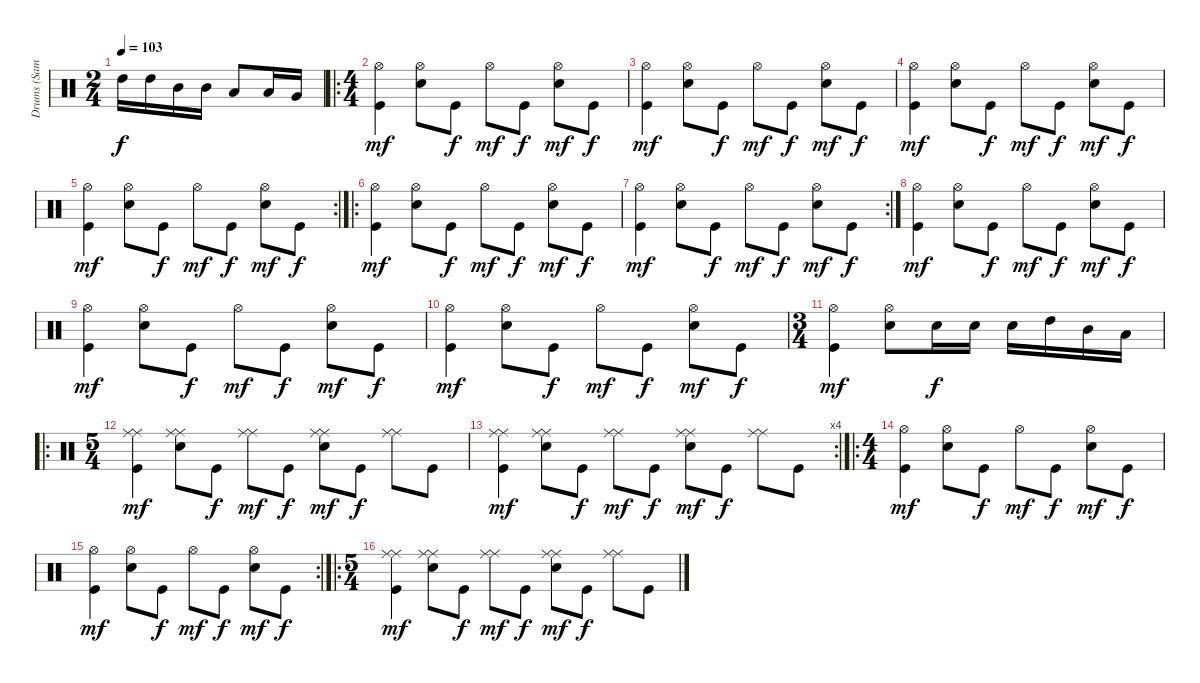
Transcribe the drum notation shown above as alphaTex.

\track ("Drums (Sami Karppinen)" "Drums (Sam") {instrument percussion}
\staff {score}
\articulation defaults
\ts (2 4)
\tempo 103
\clef neutral
\ks c "High Tom (hit)".16{dy f} "High Tom (hit)".16 "Mid Tom (hit)".16 "Mid Tom (hit)".16 "Low Tom (hit)".8 "Low Tom (hit)".16 "Very Low Tom (hit)".16
|
\ro
\ts (4 4)
("Kick (hit)" "Hi-Hat (open)").4{dy mf} ("Electric Snare (hit)" "Hi-Hat (open)").8 "Kick (hit)".8{dy f} "Hi-Hat (open)".8{dy mf} "Kick (hit)".8{dy f} ("Electric Snare (hit)" "Hi-Hat (open)").8{dy mf} "Kick (hit)".8{dy f} |
("Kick (hit)" "Hi-Hat (open)").4{dy mf} ("Electric Snare (hit)" "Hi-Hat (open)").8 "Kick (hit)".8{dy f} "Hi-Hat (open)".8{dy mf} "Kick (hit)".8{dy f} ("Electric Snare (hit)" "Hi-Hat (open)").8{dy mf} "Kick (hit)".8{dy f} |
("Kick (hit)" "Hi-Hat (open)").4{dy mf} ("Electric Snare (hit)" "Hi-Hat (open)").8 "Kick (hit)".8{dy f} "Hi-Hat (open)".8{dy mf} "Kick (hit)".8{dy f} ("Electric Snare (hit)" "Hi-Hat (open)").8{dy mf} "Kick (hit)".8{dy f} |
\rc 2
("Kick (hit)" "Hi-Hat (open)").4{dy mf} ("Electric Snare (hit)" "Hi-Hat (open)").8 "Kick (hit)".8{dy f} "Hi-Hat (open)".8{dy mf} "Kick (hit)".8{dy f} ("Electric Snare (hit)" "Hi-Hat (open)").8{dy mf} "Kick (hit)".8{dy f} |
\ro
("Kick (hit)" "Hi-Hat (open)").4{dy mf} ("Electric Snare (hit)" "Hi-Hat (open)").8 "Kick (hit)".8{dy f} "Hi-Hat (open)".8{dy mf} "Kick (hit)".8{dy f} ("Electric Snare (hit)" "Hi-Hat (open)").8{dy mf} "Kick (hit)".8{dy f} |
\rc 2
("Kick (hit)" "Hi-Hat (open)").4{dy mf} ("Electric Snare (hit)" "Hi-Hat (open)").8 "Kick (hit)".8{dy f} "Hi-Hat (open)".8{dy mf} "Kick (hit)".8{dy f} ("Electric Snare (hit)" "Hi-Hat (open)").8{dy mf} "Kick (hit)".8{dy f} |
("Kick (hit)" "Hi-Hat (open)").4{dy mf} ("Electric Snare (hit)" "Hi-Hat (open)").8 "Kick (hit)".8{dy f} "Hi-Hat (open)".8{dy mf} "Kick (hit)".8{dy f} ("Electric Snare (hit)" "Hi-Hat (open)").8{dy mf} "Kick (hit)".8{dy f} |
("Kick (hit)" "Hi-Hat (open)").4{dy mf} ("Electric Snare (hit)" "Hi-Hat (open)").8 "Kick (hit)".8{dy f} "Hi-Hat (open)".8{dy mf} "Kick (hit)".8{dy f} ("Electric Snare (hit)" "Hi-Hat (open)").8{dy mf} "Kick (hit)".8{dy f} |
("Kick (hit)" "Hi-Hat (open)").4{dy mf} ("Electric Snare (hit)" "Hi-Hat (open)").8 "Kick (hit)".8{dy f} "Hi-Hat (open)".8{dy mf} "Kick (hit)".8{dy f} ("Electric Snare (hit)" "Hi-Hat (open)").8{dy mf} "Kick (hit)".8{dy f} |
\ts (3 4)
("Kick (hit)" "Hi-Hat (open)").4{dy mf} ("Electric Snare (hit)" "Hi-Hat (open)").8 "Electric Snare (hit)".16{dy f} "Electric Snare (hit)".16 "Electric Snare (hit)".16 "High Tom (hit)".16 "Mid Tom (hit)".16 "Low Tom (hit)".16 |
\ro
\ts (5 4)
("Kick (hit)" "Ride (middle)" "Ride (middle)").4{dy mf} ("Electric Snare (hit)" "Ride (middle)" "Ride (middle)").8 "Kick (hit)".8{dy f} ("Ride (middle)" "Ride (middle)").8{dy mf} "Kick (hit)".8{dy f} ("Electric Snare (hit)" "Ride (middle)" "Ride (middle)").8{dy mf} "Kick (hit)".8{dy f} ("Ride (middle)" "Ride (middle)").8 "Kick (hit)".8 |
\rc 4
("Kick (hit)" "Ride (middle)" "Ride (middle)").4{dy mf} ("Electric Snare (hit)" "Ride (middle)" "Ride (middle)").8 "Kick (hit)".8{dy f} ("Ride (middle)" "Ride (middle)").8{dy mf} "Kick (hit)".8{dy f} ("Electric Snare (hit)" "Ride (middle)" "Ride (middle)").8{dy mf} "Kick (hit)".8{dy f} ("Ride (middle)" "Ride (middle)").8 "Kick (hit)".8 |
\ro
\ts (4 4)
("Kick (hit)" "Hi-Hat (open)").4{dy mf} ("Electric Snare (hit)" "Hi-Hat (open)").8 "Kick (hit)".8{dy f} "Hi-Hat (open)".8{dy mf} "Kick (hit)".8{dy f} ("Electric Snare (hit)" "Hi-Hat (open)").8{dy mf} "Kick (hit)".8{dy f} |
\rc 2
("Kick (hit)" "Hi-Hat (open)").4{dy mf} ("Electric Snare (hit)" "Hi-Hat (open)").8 "Kick (hit)".8{dy f} "Hi-Hat (open)".8{dy mf} "Kick (hit)".8{dy f} ("Electric Snare (hit)" "Hi-Hat (open)").8{dy mf} "Kick (hit)".8{dy f} |
\ro
\ts (5 4)
("Kick (hit)" "Ride (middle)" "Ride (middle)").4{dy mf} ("Electric Snare (hit)" "Ride (middle)" "Ride (middle)").8 "Kick (hit)".8{dy f} ("Ride (middle)" "Ride (middle)").8{dy mf} "Kick (hit)".8{dy f} ("Electric Snare (hit)" "Ride (middle)" "Ride (middle)").8{dy mf} "Kick (hit)".8{dy f} ("Ride (middle)" "Ride (middle)").8 "Kick (hit)".8
